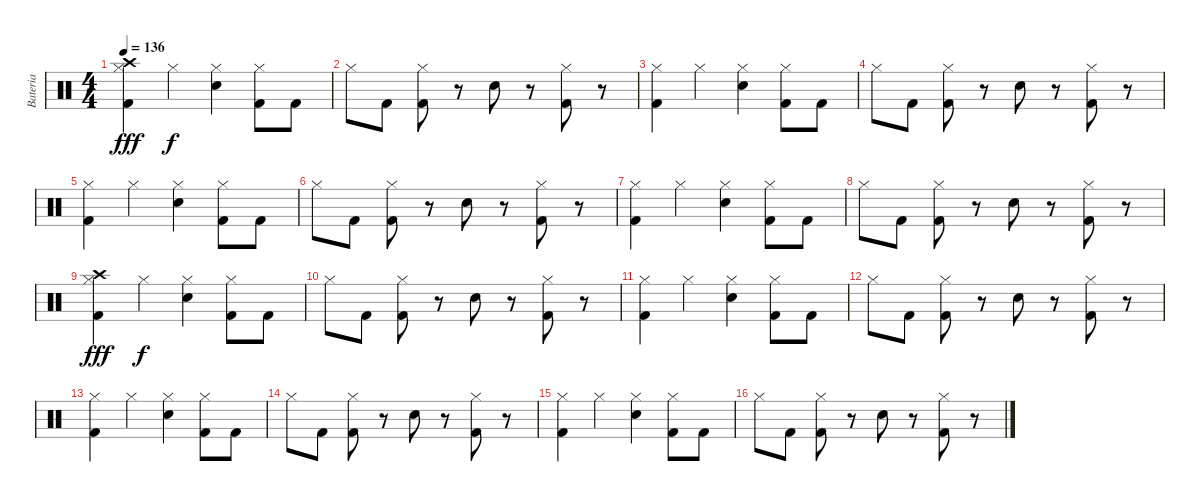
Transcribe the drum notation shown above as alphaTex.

\track ("Bateria" "Bateria") {instrument percussion}
\staff {score}
\articulation defaults
\ts (4 4)
\tempo 136
\clef neutral
\ks c
("Kick (hit) 2" "Hi-Hat (closed)" "Crash high (hit)").4{dy fff} "Hi-Hat (closed)".4{dy f} ("Snare (hit) 2" "Hi-Hat (closed)").4 ("Kick (hit) 2" "Hi-Hat (closed)").8 "Kick (hit) 2".8 |
"Hi-Hat (closed)".8 "Kick (hit) 2".8 ("Kick (hit) 2" "Hi-Hat (closed)").8 r.8 "Snare (hit) 2".8 r.8 ("Kick (hit) 2" "Hi-Hat (closed)").8 r.8 |
("Kick (hit) 2" "Hi-Hat (closed)").4 "Hi-Hat (closed)".4 ("Snare (hit) 2" "Hi-Hat (closed)").4 ("Kick (hit) 2" "Hi-Hat (closed)").8 "Kick (hit) 2".8 |
"Hi-Hat (closed)".8 "Kick (hit) 2".8 ("Kick (hit) 2" "Hi-Hat (closed)").8 r.8 "Snare (hit) 2".8 r.8 ("Kick (hit) 2" "Hi-Hat (closed)").8 r.8 |
("Kick (hit) 2" "Hi-Hat (closed)").4 "Hi-Hat (closed)".4 ("Snare (hit) 2" "Hi-Hat (closed)").4 ("Kick (hit) 2" "Hi-Hat (closed)").8 "Kick (hit) 2".8 |
"Hi-Hat (closed)".8 "Kick (hit) 2".8 ("Kick (hit) 2" "Hi-Hat (closed)").8 r.8 "Snare (hit) 2".8 r.8 ("Kick (hit) 2" "Hi-Hat (closed)").8 r.8 |
("Kick (hit) 2" "Hi-Hat (closed)").4 "Hi-Hat (closed)".4 ("Snare (hit) 2" "Hi-Hat (closed)").4 ("Kick (hit) 2" "Hi-Hat (closed)").8 "Kick (hit) 2".8 |
"Hi-Hat (closed)".8 "Kick (hit) 2".8 ("Kick (hit) 2" "Hi-Hat (closed)").8 r.8 "Snare (hit) 2".8 r.8 ("Kick (hit) 2" "Hi-Hat (closed)").8 r.8 |
("Kick (hit) 2" "Hi-Hat (closed)" "Crash high (hit)").4{dy fff} "Hi-Hat (closed)".4{dy f} ("Snare (hit) 2" "Hi-Hat (closed)").4 ("Kick (hit) 2" "Hi-Hat (closed)").8 "Kick (hit) 2".8 |
"Hi-Hat (closed)".8 "Kick (hit) 2".8 ("Kick (hit) 2" "Hi-Hat (closed)").8 r.8 "Snare (hit) 2".8 r.8 ("Kick (hit) 2" "Hi-Hat (closed)").8 r.8 |
("Kick (hit) 2" "Hi-Hat (closed)").4 "Hi-Hat (closed)".4 ("Snare (hit) 2" "Hi-Hat (closed)").4 ("Kick (hit) 2" "Hi-Hat (closed)").8 "Kick (hit) 2".8 |
"Hi-Hat (closed)".8 "Kick (hit) 2".8 ("Kick (hit) 2" "Hi-Hat (closed)").8 r.8 "Snare (hit) 2".8 r.8 ("Kick (hit) 2" "Hi-Hat (closed)").8 r.8 |
("Kick (hit) 2" "Hi-Hat (closed)").4 "Hi-Hat (closed)".4 ("Snare (hit) 2" "Hi-Hat (closed)").4 ("Kick (hit) 2" "Hi-Hat (closed)").8 "Kick (hit) 2".8 |
"Hi-Hat (closed)".8 "Kick (hit) 2".8 ("Kick (hit) 2" "Hi-Hat (closed)").8 r.8 "Snare (hit) 2".8 r.8 ("Kick (hit) 2" "Hi-Hat (closed)").8 r.8 |
("Kick (hit) 2" "Hi-Hat (closed)").4 "Hi-Hat (closed)".4 ("Snare (hit) 2" "Hi-Hat (closed)").4 ("Kick (hit) 2" "Hi-Hat (closed)").8 "Kick (hit) 2".8 |
"Hi-Hat (closed)".8 "Kick (hit) 2".8 ("Kick (hit) 2" "Hi-Hat (closed)").8 r.8 "Snare (hit) 2".8 r.8 ("Kick (hit) 2" "Hi-Hat (closed)").8 r.8
